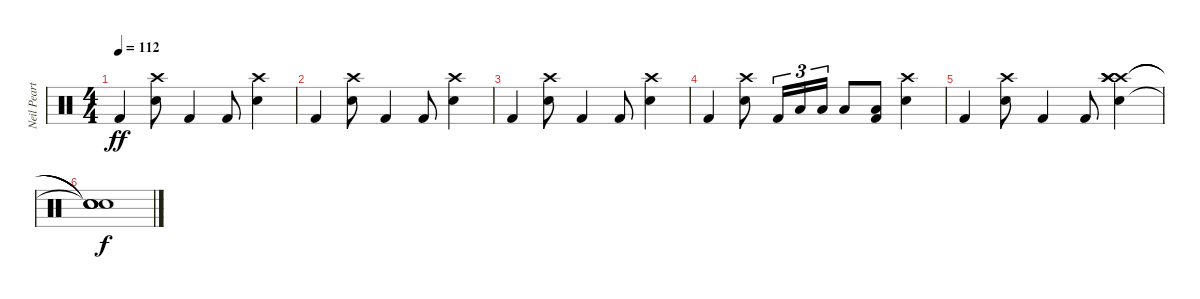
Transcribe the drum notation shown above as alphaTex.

\track ("Neil Peart" "Neil Peart") {instrument percussion}
\staff {score}
\articulation defaults
\ts (4 4)
\tempo 112
\clef neutral
\ks c "Kick (hit) 2".4{dy ff}
("Crash high (hit)" "Snare (hit) 2").8 "Kick (hit) 2".4 "Kick (hit) 2".8 ("Crash high (hit)" "Snare (hit) 2").4 |
"Kick (hit) 2".4 ("Crash high (hit)" "Snare (hit) 2").8 "Kick (hit) 2".4 "Kick (hit) 2".8 ("Crash high (hit)" "Snare (hit) 2").4 |
"Kick (hit) 2".4 ("Crash high (hit)" "Snare (hit) 2").8 "Kick (hit) 2".4 "Kick (hit) 2".8 ("Crash high (hit)" "Snare (hit) 2").4 |
"Kick (hit) 2".4 ("Crash high (hit)" "Snare (hit) 2").8 "Kick (hit) 2".16{tu (3 2)} "Low Tom (hit)".16{tu (3 2)} "Low Tom (hit)".16{tu (3 2)} "Low Tom (hit)".8 ("Low Tom (hit)" "Kick (hit) 2").8 ("Crash high (hit)" "Snare (hit) 2").4 |
"Kick (hit) 2".4 ("Crash high (hit)" "Snare (hit) 2").8 "Kick (hit) 2".4 "Kick (hit) 2".8 ("Crash high (hit)" "Snare (hit) 2" "Crash high (hit)" "Crash high (hit)").4 |
("Snare (hit)"{t} "Snare (hit)"{t} "Snare (hit)"{t} "Snare (hit)"{t}).1{dy f}
